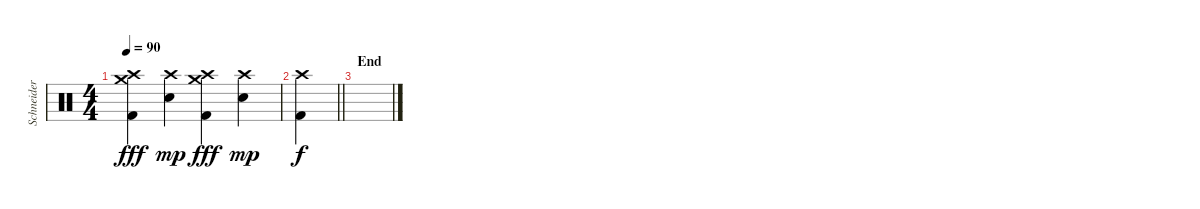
\track ("Schneider" "Schneider") {instrument percussion}
\staff {score}
\articulation defaults
\ts (4 4)
\tempo 90
\clef neutral
\ks c
("Crash high (hit)" "Crash medium (hit)" "Kick (hit) 2").4{dy fff} ("Crash high (hit)" "Electric Snare (hit)").4{dy mp} ("Crash high (hit)" "Crash medium (hit)" "Kick (hit) 2").4{dy fff} ("Crash high (hit)" "Electric Snare (hit)").4{dy mp} |
\barLineRight lightlight
("Crash high (hit)" "Kick (hit) 2").4{dy f} |
\section ("" "End")
